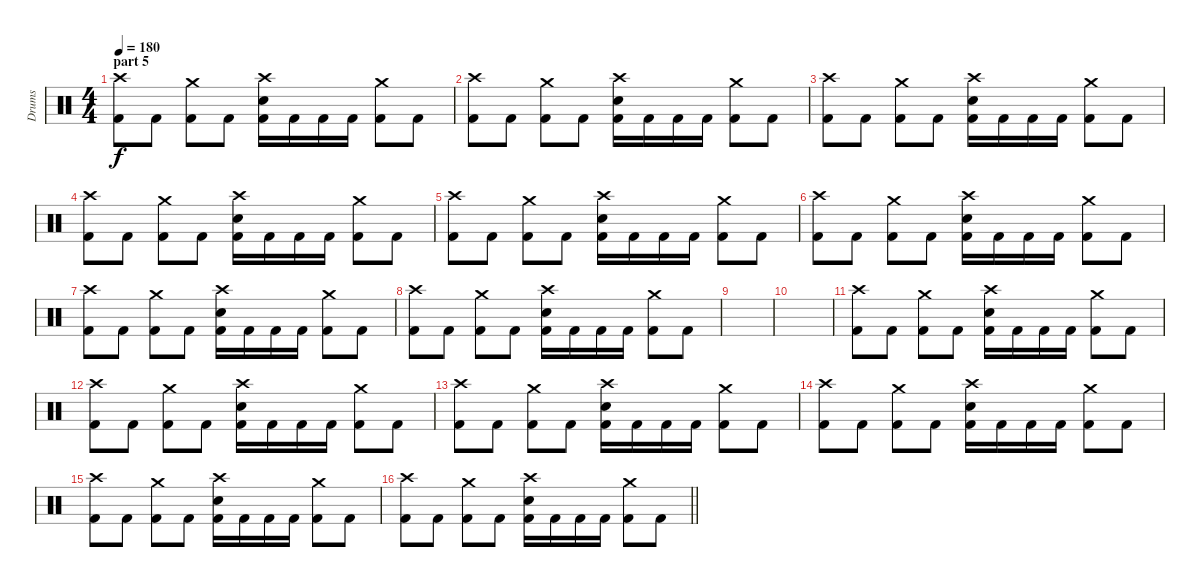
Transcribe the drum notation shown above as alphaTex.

\track ("Drums" "Drums") {instrument percussion}
\staff {score}
\articulation defaults
\ts (4 4)
\section ("" "part 5")
\tempo 180
\clef neutral
\ks c
("Crash high (hit)" "Kick (hit) 2").8{dy f} "Kick (hit) 2".8 ("Crash medium (hit)" "Kick (hit) 2").8 "Kick (hit) 2".8 ("Crash high (hit)" "Electric Snare (hit)" "Kick (hit) 2").16 "Kick (hit) 2".16 "Kick (hit) 2".16 "Kick (hit) 2".16 ("Crash medium (hit)" "Kick (hit) 2").8 "Kick (hit) 2".8 |
("Crash high (hit)" "Kick (hit) 2").8 "Kick (hit) 2".8 ("Crash medium (hit)" "Kick (hit) 2").8 "Kick (hit) 2".8 ("Crash high (hit)" "Electric Snare (hit)" "Kick (hit) 2").16 "Kick (hit) 2".16 "Kick (hit) 2".16 "Kick (hit) 2".16 ("Crash medium (hit)" "Kick (hit) 2").8 "Kick (hit) 2".8 |
("Crash high (hit)" "Kick (hit) 2").8 "Kick (hit) 2".8 ("Crash medium (hit)" "Kick (hit) 2").8 "Kick (hit) 2".8 ("Crash high (hit)" "Electric Snare (hit)" "Kick (hit) 2").16 "Kick (hit) 2".16 "Kick (hit) 2".16 "Kick (hit) 2".16 ("Crash medium (hit)" "Kick (hit) 2").8 "Kick (hit) 2".8 |
("Crash high (hit)" "Kick (hit) 2").8 "Kick (hit) 2".8 ("Crash medium (hit)" "Kick (hit) 2").8 "Kick (hit) 2".8 ("Crash high (hit)" "Electric Snare (hit)" "Kick (hit) 2").16 "Kick (hit) 2".16 "Kick (hit) 2".16 "Kick (hit) 2".16 ("Crash medium (hit)" "Kick (hit) 2").8 "Kick (hit) 2".8 |
("Crash high (hit)" "Kick (hit) 2").8 "Kick (hit) 2".8 ("Crash medium (hit)" "Kick (hit) 2").8 "Kick (hit) 2".8 ("Crash high (hit)" "Electric Snare (hit)" "Kick (hit) 2").16 "Kick (hit) 2".16 "Kick (hit) 2".16 "Kick (hit) 2".16 ("Crash medium (hit)" "Kick (hit) 2").8 "Kick (hit) 2".8 |
("Crash high (hit)" "Kick (hit) 2").8 "Kick (hit) 2".8 ("Crash medium (hit)" "Kick (hit) 2").8 "Kick (hit) 2".8 ("Crash high (hit)" "Electric Snare (hit)" "Kick (hit) 2").16 "Kick (hit) 2".16 "Kick (hit) 2".16 "Kick (hit) 2".16 ("Crash medium (hit)" "Kick (hit) 2").8 "Kick (hit) 2".8 |
("Crash high (hit)" "Kick (hit) 2").8 "Kick (hit) 2".8 ("Crash medium (hit)" "Kick (hit) 2").8 "Kick (hit) 2".8 ("Crash high (hit)" "Electric Snare (hit)" "Kick (hit) 2").16 "Kick (hit) 2".16 "Kick (hit) 2".16 "Kick (hit) 2".16 ("Crash medium (hit)" "Kick (hit) 2").8 "Kick (hit) 2".8 |
("Crash high (hit)" "Kick (hit) 2").8 "Kick (hit) 2".8 ("Crash medium (hit)" "Kick (hit) 2").8 "Kick (hit) 2".8 ("Crash high (hit)" "Electric Snare (hit)" "Kick (hit) 2").16 "Kick (hit) 2".16 "Kick (hit) 2".16 "Kick (hit) 2".16 ("Crash medium (hit)" "Kick (hit) 2").8 "Kick (hit) 2".8 |
|
|
("Crash high (hit)" "Kick (hit) 2").8 "Kick (hit) 2".8 ("Crash medium (hit)" "Kick (hit) 2").8 "Kick (hit) 2".8 ("Crash high (hit)" "Electric Snare (hit)" "Kick (hit) 2").16 "Kick (hit) 2".16 "Kick (hit) 2".16 "Kick (hit) 2".16 ("Crash medium (hit)" "Kick (hit) 2").8 "Kick (hit) 2".8 |
("Crash high (hit)" "Kick (hit) 2").8 "Kick (hit) 2".8 ("Crash medium (hit)" "Kick (hit) 2").8 "Kick (hit) 2".8 ("Crash high (hit)" "Electric Snare (hit)" "Kick (hit) 2").16 "Kick (hit) 2".16 "Kick (hit) 2".16 "Kick (hit) 2".16 ("Crash medium (hit)" "Kick (hit) 2").8 "Kick (hit) 2".8 |
("Crash high (hit)" "Kick (hit) 2").8 "Kick (hit) 2".8 ("Crash medium (hit)" "Kick (hit) 2").8 "Kick (hit) 2".8 ("Crash high (hit)" "Electric Snare (hit)" "Kick (hit) 2").16 "Kick (hit) 2".16 "Kick (hit) 2".16 "Kick (hit) 2".16 ("Crash medium (hit)" "Kick (hit) 2").8 "Kick (hit) 2".8 |
("Crash high (hit)" "Kick (hit) 2").8 "Kick (hit) 2".8 ("Crash medium (hit)" "Kick (hit) 2").8 "Kick (hit) 2".8 ("Crash high (hit)" "Electric Snare (hit)" "Kick (hit) 2").16 "Kick (hit) 2".16 "Kick (hit) 2".16 "Kick (hit) 2".16 ("Crash medium (hit)" "Kick (hit) 2").8 "Kick (hit) 2".8 |
("Crash high (hit)" "Kick (hit) 2").8 "Kick (hit) 2".8 ("Crash medium (hit)" "Kick (hit) 2").8 "Kick (hit) 2".8 ("Crash high (hit)" "Electric Snare (hit)" "Kick (hit) 2").16 "Kick (hit) 2".16 "Kick (hit) 2".16 "Kick (hit) 2".16 ("Crash medium (hit)" "Kick (hit) 2").8 "Kick (hit) 2".8 |
\barLineRight lightlight
("Crash high (hit)" "Kick (hit) 2").8 "Kick (hit) 2".8 ("Crash medium (hit)" "Kick (hit) 2").8 "Kick (hit) 2".8 ("Crash high (hit)" "Electric Snare (hit)" "Kick (hit) 2").16 "Kick (hit) 2".16 "Kick (hit) 2".16 "Kick (hit) 2".16 ("Crash medium (hit)" "Kick (hit) 2").8 "Kick (hit) 2".8
